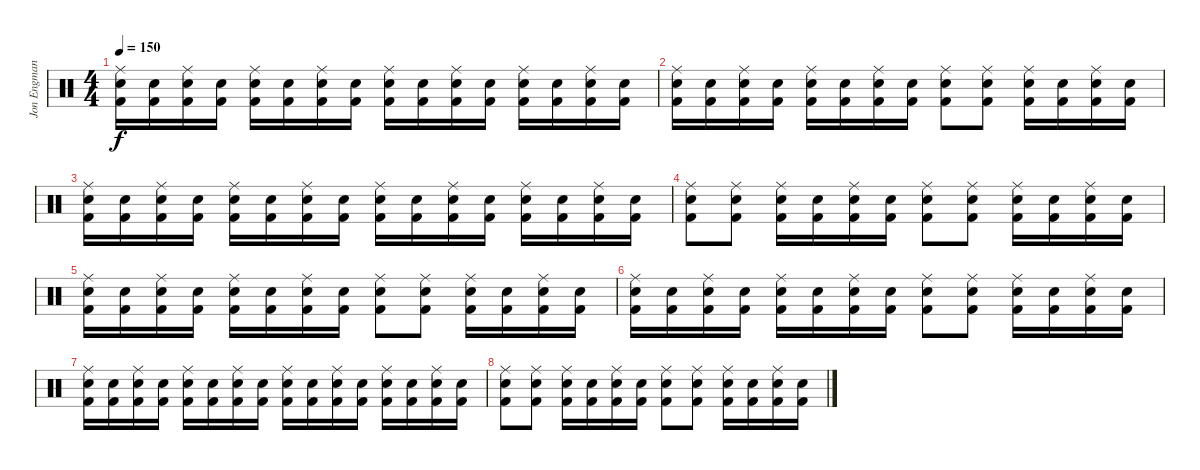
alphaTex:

\track ("Jon Engman" "Jon Engman") {instrument percussion}
\staff {score}
\articulation defaults
\ts (4 4)
\tempo 150
\clef neutral
\ks c
("Ride (middle)" "Electric Snare (hit)" "Kick (hit) 2").16{dy f} ("Electric Snare (hit)" "Kick (hit) 2").16 ("Ride (middle)" "Electric Snare (hit)" "Kick (hit) 2").16 ("Electric Snare (hit)" "Kick (hit) 2").16 ("Ride (middle)" "Electric Snare (hit)" "Kick (hit) 2").16 ("Electric Snare (hit)" "Kick (hit) 2").16 ("Ride (middle)" "Electric Snare (hit)" "Kick (hit) 2").16 ("Electric Snare (hit)" "Kick (hit) 2").16 ("Ride (middle)" "Electric Snare (hit)" "Kick (hit) 2").16 ("Electric Snare (hit)" "Kick (hit) 2").16 ("Ride (middle)" "Electric Snare (hit)" "Kick (hit) 2").16 ("Electric Snare (hit)" "Kick (hit) 2").16 ("Ride (middle)" "Electric Snare (hit)" "Kick (hit) 2").16 ("Electric Snare (hit)" "Kick (hit) 2").16 ("Ride (middle)" "Electric Snare (hit)" "Kick (hit) 2").16 ("Electric Snare (hit)" "Kick (hit) 2").16 |
("Ride (middle)" "Electric Snare (hit)" "Kick (hit) 2").16 ("Electric Snare (hit)" "Kick (hit) 2").16 ("Ride (middle)" "Electric Snare (hit)" "Kick (hit) 2").16 ("Electric Snare (hit)" "Kick (hit) 2").16 ("Ride (middle)" "Electric Snare (hit)" "Kick (hit) 2").16 ("Electric Snare (hit)" "Kick (hit) 2").16 ("Ride (middle)" "Electric Snare (hit)" "Kick (hit) 2").16 ("Electric Snare (hit)" "Kick (hit) 2").16 ("Ride (middle)" "Electric Snare (hit)" "Kick (hit) 2").8 ("Ride (middle)" "Electric Snare (hit)" "Kick (hit) 2").8 ("Ride (middle)" "Electric Snare (hit)" "Kick (hit) 2").16 ("Electric Snare (hit)" "Kick (hit) 2").16 ("Ride (middle)" "Electric Snare (hit)" "Kick (hit) 2").16 ("Electric Snare (hit)" "Kick (hit) 2").16 |
("Ride (middle)" "Electric Snare (hit)" "Kick (hit) 2").16 ("Electric Snare (hit)" "Kick (hit) 2").16 ("Ride (middle)" "Electric Snare (hit)" "Kick (hit) 2").16 ("Electric Snare (hit)" "Kick (hit) 2").16 ("Ride (middle)" "Electric Snare (hit)" "Kick (hit) 2").16 ("Electric Snare (hit)" "Kick (hit) 2").16 ("Ride (middle)" "Electric Snare (hit)" "Kick (hit) 2").16 ("Electric Snare (hit)" "Kick (hit) 2").16 ("Ride (middle)" "Electric Snare (hit)" "Kick (hit) 2").16 ("Electric Snare (hit)" "Kick (hit) 2").16 ("Ride (middle)" "Electric Snare (hit)" "Kick (hit) 2").16 ("Electric Snare (hit)" "Kick (hit) 2").16 ("Ride (middle)" "Electric Snare (hit)" "Kick (hit) 2").16 ("Electric Snare (hit)" "Kick (hit) 2").16 ("Ride (middle)" "Electric Snare (hit)" "Kick (hit) 2").16 ("Electric Snare (hit)" "Kick (hit) 2").16 |
("Ride (middle)" "Electric Snare (hit)" "Kick (hit) 2").8 ("Ride (middle)" "Electric Snare (hit)" "Kick (hit) 2").8 ("Ride (middle)" "Electric Snare (hit)" "Kick (hit) 2").16 ("Electric Snare (hit)" "Kick (hit) 2").16 ("Ride (middle)" "Electric Snare (hit)" "Kick (hit) 2").16 ("Electric Snare (hit)" "Kick (hit) 2").16 ("Ride (middle)" "Electric Snare (hit)" "Kick (hit) 2").8 ("Ride (middle)" "Electric Snare (hit)" "Kick (hit) 2").8 ("Ride (middle)" "Electric Snare (hit)" "Kick (hit) 2").16 ("Electric Snare (hit)" "Kick (hit) 2").16 ("Ride (middle)" "Electric Snare (hit)" "Kick (hit) 2").16 ("Electric Snare (hit)" "Kick (hit) 2").16 |
("Ride (middle)" "Electric Snare (hit)" "Kick (hit) 2").16 ("Electric Snare (hit)" "Kick (hit) 2").16 ("Ride (middle)" "Electric Snare (hit)" "Kick (hit) 2").16 ("Electric Snare (hit)" "Kick (hit) 2").16 ("Ride (middle)" "Electric Snare (hit)" "Kick (hit) 2").16 ("Electric Snare (hit)" "Kick (hit) 2").16 ("Ride (middle)" "Electric Snare (hit)" "Kick (hit) 2").16 ("Electric Snare (hit)" "Kick (hit) 2").16 ("Ride (middle)" "Electric Snare (hit)" "Kick (hit) 2").8 ("Ride (middle)" "Electric Snare (hit)" "Kick (hit) 2").8 ("Ride (middle)" "Electric Snare (hit)" "Kick (hit) 2").16 ("Electric Snare (hit)" "Kick (hit) 2").16 ("Ride (middle)" "Electric Snare (hit)" "Kick (hit) 2").16 ("Electric Snare (hit)" "Kick (hit) 2").16 |
("Ride (middle)" "Electric Snare (hit)" "Kick (hit) 2").16 ("Electric Snare (hit)" "Kick (hit) 2").16 ("Ride (middle)" "Electric Snare (hit)" "Kick (hit) 2").16 ("Electric Snare (hit)" "Kick (hit) 2").16 ("Ride (middle)" "Electric Snare (hit)" "Kick (hit) 2").16 ("Electric Snare (hit)" "Kick (hit) 2").16 ("Ride (middle)" "Electric Snare (hit)" "Kick (hit) 2").16 ("Electric Snare (hit)" "Kick (hit) 2").16 ("Ride (middle)" "Electric Snare (hit)" "Kick (hit) 2").8 ("Ride (middle)" "Electric Snare (hit)" "Kick (hit) 2").8 ("Ride (middle)" "Electric Snare (hit)" "Kick (hit) 2").16 ("Electric Snare (hit)" "Kick (hit) 2").16 ("Ride (middle)" "Electric Snare (hit)" "Kick (hit) 2").16 ("Electric Snare (hit)" "Kick (hit) 2").16 |
("Ride (middle)" "Electric Snare (hit)" "Kick (hit) 2").16 ("Electric Snare (hit)" "Kick (hit) 2").16 ("Ride (middle)" "Electric Snare (hit)" "Kick (hit) 2").16 ("Electric Snare (hit)" "Kick (hit) 2").16 ("Ride (middle)" "Electric Snare (hit)" "Kick (hit) 2").16 ("Electric Snare (hit)" "Kick (hit) 2").16 ("Ride (middle)" "Electric Snare (hit)" "Kick (hit) 2").16 ("Electric Snare (hit)" "Kick (hit) 2").16 ("Ride (middle)" "Electric Snare (hit)" "Kick (hit) 2").16 ("Electric Snare (hit)" "Kick (hit) 2").16 ("Ride (middle)" "Electric Snare (hit)" "Kick (hit) 2").16 ("Electric Snare (hit)" "Kick (hit) 2").16 ("Ride (middle)" "Electric Snare (hit)" "Kick (hit) 2").16 ("Electric Snare (hit)" "Kick (hit) 2").16 ("Ride (middle)" "Electric Snare (hit)" "Kick (hit) 2").16 ("Electric Snare (hit)" "Kick (hit) 2").16 |
("Ride (middle)" "Electric Snare (hit)" "Kick (hit) 2").8 ("Ride (middle)" "Electric Snare (hit)" "Kick (hit) 2").8 ("Ride (middle)" "Electric Snare (hit)" "Kick (hit) 2").16 ("Electric Snare (hit)" "Kick (hit) 2").16 ("Ride (middle)" "Electric Snare (hit)" "Kick (hit) 2").16 ("Electric Snare (hit)" "Kick (hit) 2").16 ("Ride (middle)" "Electric Snare (hit)" "Kick (hit) 2").8 ("Ride (middle)" "Electric Snare (hit)" "Kick (hit) 2").8 ("Ride (middle)" "Electric Snare (hit)" "Kick (hit) 2").16 ("Electric Snare (hit)" "Kick (hit) 2").16 ("Ride (middle)" "Electric Snare (hit)" "Kick (hit) 2").16 ("Electric Snare (hit)" "Kick (hit) 2").16
